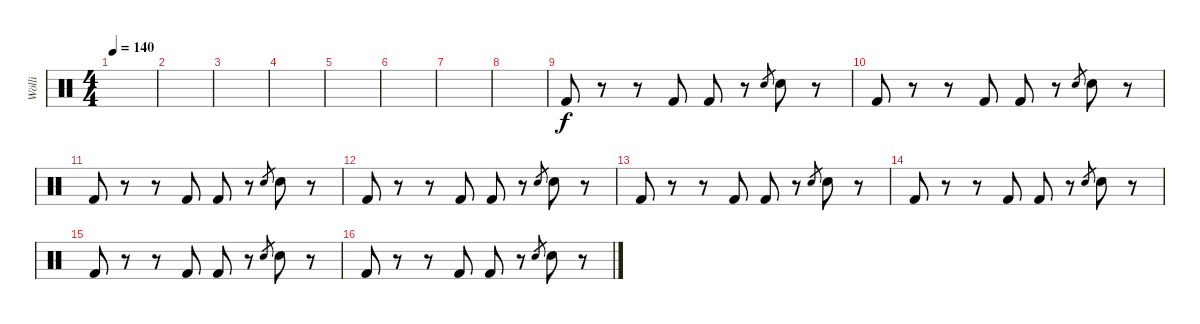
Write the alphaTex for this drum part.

\track ("Wölli" "Wölli") {instrument percussion}
\staff {score}
\articulation defaults
\ts (4 4)
\tempo 140
\clef neutral
\ks c
|
|
|
|
|
|
|
|
"Kick (hit) 2".8 r.8 r.8 "Kick (hit) 2".8 "Kick (hit) 2".8 r.8 "Snare (hit) 2".8{gr} "Snare (hit) 2".8 r.8 |
"Kick (hit) 2".8 r.8 r.8 "Kick (hit) 2".8 "Kick (hit) 2".8 r.8 "Snare (hit) 2".8{gr} "Snare (hit) 2".8 r.8 |
"Kick (hit) 2".8 r.8 r.8 "Kick (hit) 2".8 "Kick (hit) 2".8 r.8 "Snare (hit) 2".8{gr} "Snare (hit) 2".8 r.8 |
"Kick (hit) 2".8 r.8 r.8 "Kick (hit) 2".8 "Kick (hit) 2".8 r.8 "Snare (hit) 2".8{gr} "Snare (hit) 2".8 r.8 |
"Kick (hit) 2".8 r.8 r.8 "Kick (hit) 2".8 "Kick (hit) 2".8 r.8 "Snare (hit) 2".8{gr} "Snare (hit) 2".8 r.8 |
"Kick (hit) 2".8 r.8 r.8 "Kick (hit) 2".8 "Kick (hit) 2".8 r.8 "Snare (hit) 2".8{gr} "Snare (hit) 2".8 r.8 |
"Kick (hit) 2".8 r.8 r.8 "Kick (hit) 2".8 "Kick (hit) 2".8 r.8 "Snare (hit) 2".8{gr} "Snare (hit) 2".8 r.8 |
"Kick (hit) 2".8 r.8 r.8 "Kick (hit) 2".8 "Kick (hit) 2".8 r.8 "Snare (hit) 2".8{gr} "Snare (hit) 2".8 r.8
